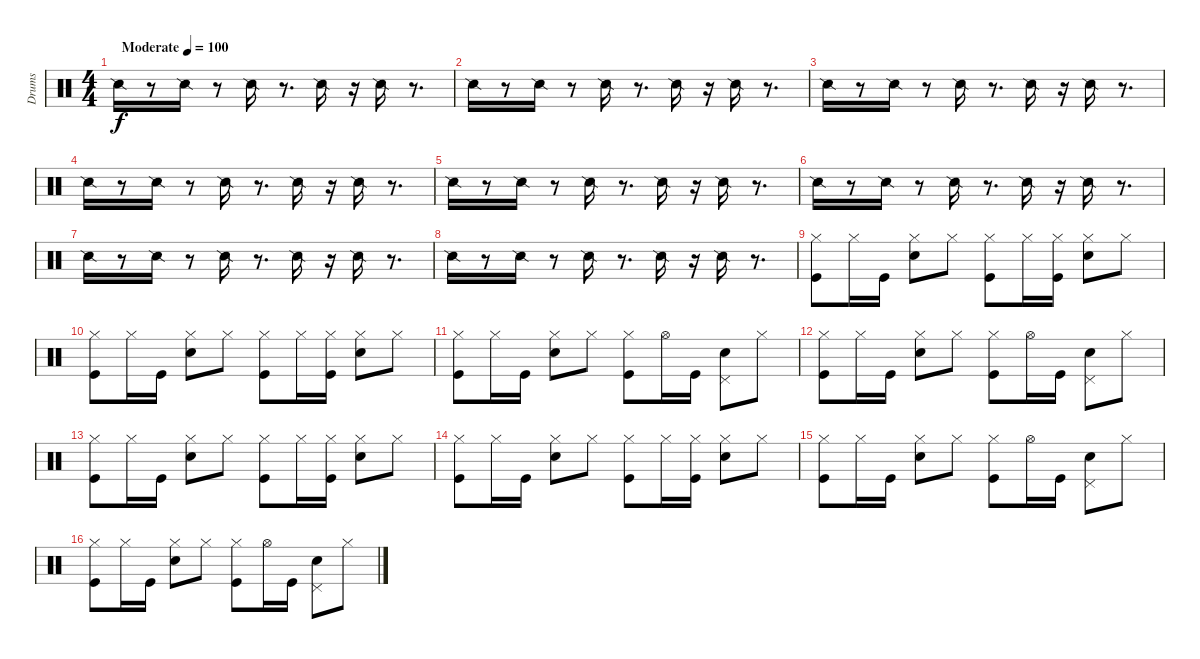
\track ("Drums" "Drums") {instrument percussion}
\staff {score}
\articulation defaults
\ts (4 4)
\tempo (100 "Moderate")
\clef neutral
\ks c "Snare (side stick) 2".16{dy f}
r.8 "Snare (side stick) 2".16 r.8 "Snare (side stick) 2".16 r.8{d} "Snare (side stick) 2".16 r.16 "Snare (side stick) 2".16 r.8{d} |
"Snare (side stick) 2".16 r.8 "Snare (side stick) 2".16 r.8 "Snare (side stick) 2".16 r.8{d} "Snare (side stick) 2".16 r.16 "Snare (side stick) 2".16 r.8{d} |
"Snare (side stick) 2".16 r.8 "Snare (side stick) 2".16 r.8 "Snare (side stick) 2".16 r.8{d} "Snare (side stick) 2".16 r.16 "Snare (side stick) 2".16 r.8{d} |
"Snare (side stick) 2".16 r.8 "Snare (side stick) 2".16 r.8 "Snare (side stick) 2".16 r.8{d} "Snare (side stick) 2".16 r.16 "Snare (side stick) 2".16 r.8{d} |
"Snare (side stick) 2".16 r.8 "Snare (side stick) 2".16 r.8 "Snare (side stick) 2".16 r.8{d} "Snare (side stick) 2".16 r.16 "Snare (side stick) 2".16 r.8{d} |
"Snare (side stick) 2".16 r.8 "Snare (side stick) 2".16 r.8 "Snare (side stick) 2".16 r.8{d} "Snare (side stick) 2".16 r.16 "Snare (side stick) 2".16 r.8{d} |
"Snare (side stick) 2".16 r.8 "Snare (side stick) 2".16 r.8 "Snare (side stick) 2".16 r.8{d} "Snare (side stick) 2".16 r.16 "Snare (side stick) 2".16 r.8{d} |
"Snare (side stick) 2".16 r.8 "Snare (side stick) 2".16 r.8 "Snare (side stick) 2".16 r.8{d} "Snare (side stick) 2".16 r.16 "Snare (side stick) 2".16 r.8{d} |
("Hi-Hat (closed)" "Kick (hit)").8 "Hi-Hat (closed)".16 "Kick (hit)".16 ("Hi-Hat (closed)" "Snare (hit) 2").8 "Hi-Hat (closed)".8 ("Hi-Hat (closed)" "Kick (hit)").8 "Hi-Hat (closed)".16 ("Hi-Hat (closed)" "Kick (hit)").16 ("Hi-Hat (closed)" "Snare (hit) 2").8 "Hi-Hat (closed)".8 |
("Hi-Hat (closed)" "Kick (hit)").8 "Hi-Hat (closed)".16 "Kick (hit)".16 ("Hi-Hat (closed)" "Snare (hit) 2").8 "Hi-Hat (closed)".8 ("Hi-Hat (closed)" "Kick (hit)").8 "Hi-Hat (closed)".16 ("Hi-Hat (closed)" "Kick (hit)").16 ("Hi-Hat (closed)" "Snare (hit) 2").8 "Hi-Hat (closed)".8 |
("Hi-Hat (closed)" "Kick (hit)").8 "Hi-Hat (closed)".16 "Kick (hit)".16 ("Hi-Hat (closed)" "Snare (hit) 2").8 "Hi-Hat (closed)".8 ("Hi-Hat (closed)" "Kick (hit)").8 "Hi-Hat (open)".16 "Kick (hit)".16 ("Pedal Hi-Hat (hit)" "Snare (hit) 2").8 "Hi-Hat (closed)".8 |
("Hi-Hat (closed)" "Kick (hit)").8 "Hi-Hat (closed)".16 "Kick (hit)".16 ("Hi-Hat (closed)" "Snare (hit) 2").8 "Hi-Hat (closed)".8 ("Hi-Hat (closed)" "Kick (hit)").8 "Hi-Hat (open)".16 "Kick (hit)".16 ("Pedal Hi-Hat (hit)" "Snare (hit) 2").8 "Hi-Hat (closed)".8 |
("Hi-Hat (closed)" "Kick (hit)").8 "Hi-Hat (closed)".16 "Kick (hit)".16 ("Hi-Hat (closed)" "Snare (hit) 2").8 "Hi-Hat (closed)".8 ("Hi-Hat (closed)" "Kick (hit)").8 "Hi-Hat (closed)".16 ("Hi-Hat (closed)" "Kick (hit)").16 ("Hi-Hat (closed)" "Snare (hit) 2").8 "Hi-Hat (closed)".8 |
("Hi-Hat (closed)" "Kick (hit)").8 "Hi-Hat (closed)".16 "Kick (hit)".16 ("Hi-Hat (closed)" "Snare (hit) 2").8 "Hi-Hat (closed)".8 ("Hi-Hat (closed)" "Kick (hit)").8 "Hi-Hat (closed)".16 ("Hi-Hat (closed)" "Kick (hit)").16 ("Hi-Hat (closed)" "Snare (hit) 2").8 "Hi-Hat (closed)".8 |
("Hi-Hat (closed)" "Kick (hit)").8 "Hi-Hat (closed)".16 "Kick (hit)".16 ("Hi-Hat (closed)" "Snare (hit) 2").8 "Hi-Hat (closed)".8 ("Hi-Hat (closed)" "Kick (hit)").8 "Hi-Hat (open)".16 "Kick (hit)".16 ("Pedal Hi-Hat (hit)" "Snare (hit) 2").8 "Hi-Hat (closed)".8 |
("Hi-Hat (closed)" "Kick (hit)").8 "Hi-Hat (closed)".16 "Kick (hit)".16 ("Hi-Hat (closed)" "Snare (hit) 2").8 "Hi-Hat (closed)".8 ("Hi-Hat (closed)" "Kick (hit)").8 "Hi-Hat (open)".16 "Kick (hit)".16 ("Pedal Hi-Hat (hit)" "Snare (hit) 2").8 "Hi-Hat (closed)".8
